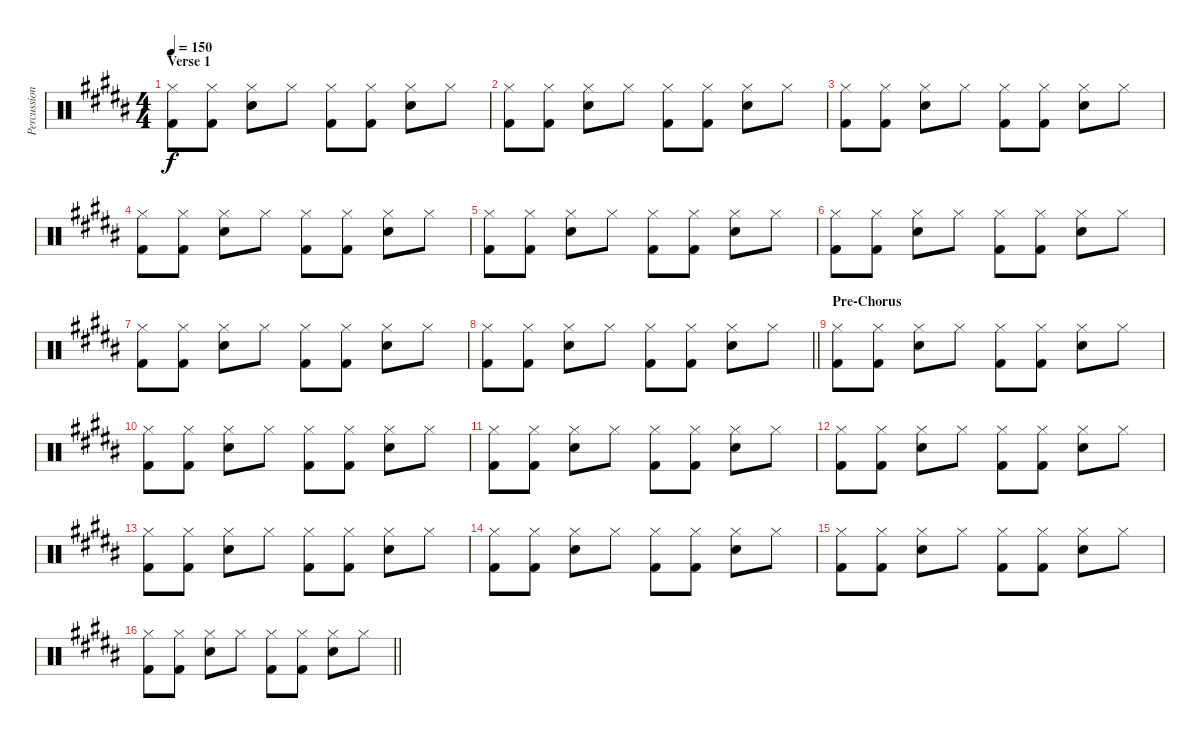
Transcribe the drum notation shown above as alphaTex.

\track ("Percussion" "Percussion") {instrument percussion}
\staff {score}
\articulation defaults
\ts (4 4)
\section ("" "Verse 1")
\tempo 150
\clef neutral
\ks b
("Hi-Hat (closed)" "Kick (hit) 2").8{dy f} ("Hi-Hat (closed)" "Kick (hit) 2").8 ("Hi-Hat (closed)" "Electric Snare (hit)").8 "Hi-Hat (closed)".8 ("Hi-Hat (closed)" "Kick (hit) 2").8 ("Hi-Hat (closed)" "Kick (hit) 2").8 ("Hi-Hat (closed)" "Electric Snare (hit)").8 "Hi-Hat (closed)".8 |
("Hi-Hat (closed)" "Kick (hit) 2").8 ("Hi-Hat (closed)" "Kick (hit) 2").8 ("Hi-Hat (closed)" "Electric Snare (hit)").8 "Hi-Hat (closed)".8 ("Hi-Hat (closed)" "Kick (hit) 2").8 ("Hi-Hat (closed)" "Kick (hit) 2").8 ("Hi-Hat (closed)" "Electric Snare (hit)").8 "Hi-Hat (closed)".8 |
("Hi-Hat (closed)" "Kick (hit) 2").8 ("Hi-Hat (closed)" "Kick (hit) 2").8 ("Hi-Hat (closed)" "Electric Snare (hit)").8 "Hi-Hat (closed)".8 ("Hi-Hat (closed)" "Kick (hit) 2").8 ("Hi-Hat (closed)" "Kick (hit) 2").8 ("Hi-Hat (closed)" "Electric Snare (hit)").8 "Hi-Hat (closed)".8 |
("Hi-Hat (closed)" "Kick (hit) 2").8 ("Hi-Hat (closed)" "Kick (hit) 2").8 ("Hi-Hat (closed)" "Electric Snare (hit)").8 "Hi-Hat (closed)".8 ("Hi-Hat (closed)" "Kick (hit) 2").8 ("Hi-Hat (closed)" "Kick (hit) 2").8 ("Hi-Hat (closed)" "Electric Snare (hit)").8 "Hi-Hat (closed)".8 |
("Hi-Hat (closed)" "Kick (hit) 2").8 ("Hi-Hat (closed)" "Kick (hit) 2").8 ("Hi-Hat (closed)" "Electric Snare (hit)").8 "Hi-Hat (closed)".8 ("Hi-Hat (closed)" "Kick (hit) 2").8 ("Hi-Hat (closed)" "Kick (hit) 2").8 ("Hi-Hat (closed)" "Electric Snare (hit)").8 "Hi-Hat (closed)".8 |
("Hi-Hat (closed)" "Kick (hit) 2").8 ("Hi-Hat (closed)" "Kick (hit) 2").8 ("Hi-Hat (closed)" "Electric Snare (hit)").8 "Hi-Hat (closed)".8 ("Hi-Hat (closed)" "Kick (hit) 2").8 ("Hi-Hat (closed)" "Kick (hit) 2").8 ("Hi-Hat (closed)" "Electric Snare (hit)").8 "Hi-Hat (closed)".8 |
("Hi-Hat (closed)" "Kick (hit) 2").8 ("Hi-Hat (closed)" "Kick (hit) 2").8 ("Hi-Hat (closed)" "Electric Snare (hit)").8 "Hi-Hat (closed)".8 ("Hi-Hat (closed)" "Kick (hit) 2").8 ("Hi-Hat (closed)" "Kick (hit) 2").8 ("Hi-Hat (closed)" "Electric Snare (hit)").8 "Hi-Hat (closed)".8 |
\barLineRight lightlight
("Hi-Hat (closed)" "Kick (hit) 2").8 ("Hi-Hat (closed)" "Kick (hit) 2").8 ("Hi-Hat (closed)" "Electric Snare (hit)").8 "Hi-Hat (closed)".8 ("Hi-Hat (closed)" "Kick (hit) 2").8 ("Hi-Hat (closed)" "Kick (hit) 2").8 ("Hi-Hat (closed)" "Electric Snare (hit)").8 "Hi-Hat (closed)".8 |
\section ("" "Pre-Chorus")
("Hi-Hat (closed)" "Kick (hit) 2").8 ("Hi-Hat (closed)" "Kick (hit) 2").8 ("Hi-Hat (closed)" "Electric Snare (hit)").8 "Hi-Hat (closed)".8 ("Hi-Hat (closed)" "Kick (hit) 2").8 ("Hi-Hat (closed)" "Kick (hit) 2").8 ("Hi-Hat (closed)" "Electric Snare (hit)").8 "Hi-Hat (closed)".8 |
("Hi-Hat (closed)" "Kick (hit) 2").8 ("Hi-Hat (closed)" "Kick (hit) 2").8 ("Hi-Hat (closed)" "Electric Snare (hit)").8 "Hi-Hat (closed)".8 ("Hi-Hat (closed)" "Kick (hit) 2").8 ("Hi-Hat (closed)" "Kick (hit) 2").8 ("Hi-Hat (closed)" "Electric Snare (hit)").8 "Hi-Hat (closed)".8 |
("Hi-Hat (closed)" "Kick (hit) 2").8 ("Hi-Hat (closed)" "Kick (hit) 2").8 ("Hi-Hat (closed)" "Electric Snare (hit)").8 "Hi-Hat (closed)".8 ("Hi-Hat (closed)" "Kick (hit) 2").8 ("Hi-Hat (closed)" "Kick (hit) 2").8 ("Hi-Hat (closed)" "Electric Snare (hit)").8 "Hi-Hat (closed)".8 |
("Hi-Hat (closed)" "Kick (hit) 2").8 ("Hi-Hat (closed)" "Kick (hit) 2").8 ("Hi-Hat (closed)" "Electric Snare (hit)").8 "Hi-Hat (closed)".8 ("Hi-Hat (closed)" "Kick (hit) 2").8 ("Hi-Hat (closed)" "Kick (hit) 2").8 ("Hi-Hat (closed)" "Electric Snare (hit)").8 "Hi-Hat (closed)".8 |
("Hi-Hat (closed)" "Kick (hit) 2").8 ("Hi-Hat (closed)" "Kick (hit) 2").8 ("Hi-Hat (closed)" "Electric Snare (hit)").8 "Hi-Hat (closed)".8 ("Hi-Hat (closed)" "Kick (hit) 2").8 ("Hi-Hat (closed)" "Kick (hit) 2").8 ("Hi-Hat (closed)" "Electric Snare (hit)").8 "Hi-Hat (closed)".8 |
("Hi-Hat (closed)" "Kick (hit) 2").8 ("Hi-Hat (closed)" "Kick (hit) 2").8 ("Hi-Hat (closed)" "Electric Snare (hit)").8 "Hi-Hat (closed)".8 ("Hi-Hat (closed)" "Kick (hit) 2").8 ("Hi-Hat (closed)" "Kick (hit) 2").8 ("Hi-Hat (closed)" "Electric Snare (hit)").8 "Hi-Hat (closed)".8 |
("Hi-Hat (closed)" "Kick (hit) 2").8 ("Hi-Hat (closed)" "Kick (hit) 2").8 ("Hi-Hat (closed)" "Electric Snare (hit)").8 "Hi-Hat (closed)".8 ("Hi-Hat (closed)" "Kick (hit) 2").8 ("Hi-Hat (closed)" "Kick (hit) 2").8 ("Hi-Hat (closed)" "Electric Snare (hit)").8 "Hi-Hat (closed)".8 |
\barLineRight lightlight
("Hi-Hat (closed)" "Kick (hit) 2").8 ("Hi-Hat (closed)" "Kick (hit) 2").8 ("Hi-Hat (closed)" "Electric Snare (hit)").8 "Hi-Hat (closed)".8 ("Hi-Hat (closed)" "Kick (hit) 2").8 ("Hi-Hat (closed)" "Kick (hit) 2").8 ("Hi-Hat (closed)" "Electric Snare (hit)").8 "Hi-Hat (closed)".8
